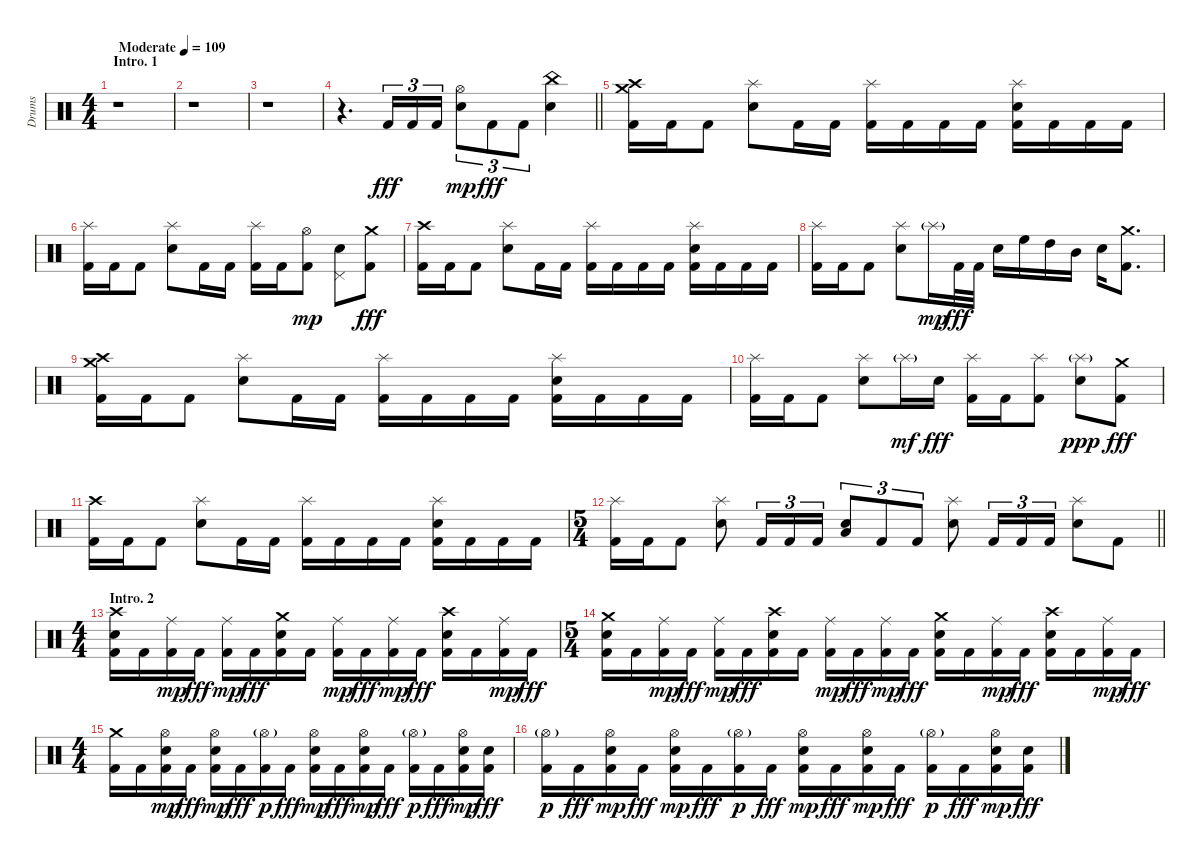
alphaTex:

\track ("Drums" "Drums") {instrument percussion}
\staff {score}
\articulation defaults
\ts (4 4)
\section ("" "Intro. 1")
\tempo (109 "Moderate")
\clef neutral
\ks c
r.1{dy fff} |
r.1 |
r.1 |
\barLineRight lightlight
r.4{d} "Kick (hit) 2".16{tu (3 2)} "Kick (hit) 2".16{tu (3 2)} "Kick (hit) 2".16{tu (3 2)} ("Electric Snare (hit)" "Hi-Hat (open)").8{tu (3 2) dy mp} "Kick (hit) 2".8{tu (3 2) dy fff} "Kick (hit) 2".8{tu (3 2)} ("Electric Snare (hit)" "China (hit)").4 |
("Kick (hit) 2" "Crash medium (hit)" "Crash high (hit)").16 "Kick (hit) 2".16 "Kick (hit) 2".8 ("Electric Snare (hit)" "Splash (hit)").8 "Kick (hit) 2".16 "Kick (hit) 2".16 ("Kick (hit) 2" "Splash (hit)").16 "Kick (hit) 2".16 "Kick (hit) 2".16 "Kick (hit) 2".16 ("Kick (hit) 2" "Electric Snare (hit)" "Splash (hit)").16 "Kick (hit) 2".16 "Kick (hit) 2".16 "Kick (hit) 2".16 |
("Kick (hit) 2" "Splash (hit)").16 "Kick (hit) 2".16 "Kick (hit) 2".8 ("Electric Snare (hit)" "Splash (hit)").8 "Kick (hit) 2".16 "Kick (hit) 2".16 ("Kick (hit) 2" "Splash (hit)").16 "Kick (hit) 2".16 ("Kick (hit) 2" "Hi-Hat (open)").8{dy mp} ("Electric Snare (hit)" "Pedal Hi-Hat (hit)").8 ("Kick (hit) 2" "Crash medium (hit)").8{dy fff} |
("Kick (hit) 2" "Crash high (hit)").16 "Kick (hit) 2".16 "Kick (hit) 2".8 ("Electric Snare (hit)" "Splash (hit)").8 "Kick (hit) 2".16 "Kick (hit) 2".16 ("Kick (hit) 2" "Splash (hit)").16 "Kick (hit) 2".16 "Kick (hit) 2".16 "Kick (hit) 2".16 ("Kick (hit) 2" "Electric Snare (hit)" "Splash (hit)").16 "Kick (hit) 2".16 "Kick (hit) 2".16 "Kick (hit) 2".16 |
("Kick (hit) 2" "Splash (hit)").16 "Kick (hit) 2".16 "Kick (hit) 2".8 ("Electric Snare (hit)" "Splash (hit)").8 "Splash (hit)"{g}.16{dy mp} "Kick (hit) 2".32{dy fff} "Kick (hit) 2".32 "Electric Snare (hit)".16 "High Floor Tom (hit)".16 "High Tom (hit)".16 "Mid Tom (hit)".16 "Electric Snare (hit)".16 ("Kick (hit) 2" "Crash medium (hit)").8{d} |
("Kick (hit) 2" "Crash medium (hit)" "Crash high (hit)").16 "Kick (hit) 2".16 "Kick (hit) 2".8 ("Electric Snare (hit)" "Splash (hit)").8 "Kick (hit) 2".16 "Kick (hit) 2".16 ("Kick (hit) 2" "Splash (hit)").16 "Kick (hit) 2".16 "Kick (hit) 2".16 "Kick (hit) 2".16 ("Kick (hit) 2" "Electric Snare (hit)" "Splash (hit)").16 "Kick (hit) 2".16 "Kick (hit) 2".16 "Kick (hit) 2".16 |
("Kick (hit) 2" "Splash (hit)").16 "Kick (hit) 2".16 "Kick (hit) 2".8 ("Electric Snare (hit)" "Splash (hit)").8 "Splash (hit)"{g}.16{dy mf} "Electric Snare (hit)".16{dy fff} ("Kick (hit) 2" "Splash (hit)").16 "Kick (hit) 2".16 ("Kick (hit) 2" "Splash (hit)").8 ("Electric Snare (hit)" "Splash (hit)"{g}).8{dy ppp} ("Kick (hit) 2" "Crash medium (hit)").8{dy fff} |
("Kick (hit) 2" "Crash high (hit)").16 "Kick (hit) 2".16 "Kick (hit) 2".8 ("Electric Snare (hit)" "Splash (hit)").8 "Kick (hit) 2".16 "Kick (hit) 2".16 ("Kick (hit) 2" "Splash (hit)").16 "Kick (hit) 2".16 "Kick (hit) 2".16 "Kick (hit) 2".16 ("Kick (hit) 2" "Electric Snare (hit)" "Splash (hit)").16 "Kick (hit) 2".16 "Kick (hit) 2".16 "Kick (hit) 2".16 |
\ts (5 4)
\barLineRight lightlight
("Kick (hit) 2" "Splash (hit)").16 "Kick (hit) 2".16 "Kick (hit) 2".8 ("Electric Snare (hit)" "Splash (hit)").8 "Kick (hit) 2".16{tu (3 2)} "Kick (hit) 2".16{tu (3 2)} "Kick (hit) 2".16{tu (3 2)} ("Electric Snare (hit)" "Low Floor Tom (hit)").8{tu (3 2)} "Kick (hit) 2".8{tu (3 2)} "Kick (hit) 2".8{tu (3 2)} ("Electric Snare (hit)" "Splash (hit)").8 "Kick (hit) 2".16{tu (3 2)} "Kick (hit) 2".16{tu (3 2)} "Kick (hit) 2".16{tu (3 2)} ("Electric Snare (hit)" "Splash (hit)").8 "Kick (hit) 2".8 |
\ts (4 4)
\section ("" "Intro. 2")
("Kick (hit) 2" "Electric Snare (hit)" "Crash high (hit)").16 "Kick (hit) 2".16 ("Kick (hit) 2" "Ride (middle)").16{dy mp} "Kick (hit) 2".16{dy fff} ("Kick (hit) 2" "Ride (middle)").16{dy mp} "Kick (hit) 2".16{dy fff} ("Kick (hit) 2" "Electric Snare (hit)" "Crash medium (hit)").16 "Kick (hit) 2".16 ("Kick (hit) 2" "Ride (middle)").16{dy mp} "Kick (hit) 2".16{dy fff} ("Kick (hit) 2" "Ride (middle)").16{dy mp} "Kick (hit) 2".16{dy fff} ("Kick (hit) 2" "Electric Snare (hit)" "Crash high (hit)").16 "Kick (hit) 2".16 ("Kick (hit) 2" "Ride (middle)").16{dy mp} "Kick (hit) 2".16{dy fff} |
\ts (5 4)
("Kick (hit) 2" "Electric Snare (hit)" "Crash medium (hit)").16 "Kick (hit) 2".16 ("Kick (hit) 2" "Ride (middle)").16{dy mp} "Kick (hit) 2".16{dy fff} ("Kick (hit) 2" "Ride (middle)").16{dy mp} "Kick (hit) 2".16{dy fff} ("Kick (hit) 2" "Electric Snare (hit)" "Crash high (hit)").16 "Kick (hit) 2".16 ("Kick (hit) 2" "Ride (middle)").16{dy mp} "Kick (hit) 2".16{dy fff} ("Kick (hit) 2" "Ride (middle)").16{dy mp} "Kick (hit) 2".16{dy fff} ("Kick (hit) 2" "Electric Snare (hit)" "Crash medium (hit)").16 "Kick (hit) 2".16 ("Kick (hit) 2" "Ride (middle)").16{dy mp} "Kick (hit) 2".16{dy fff} ("Kick (hit) 2" "Electric Snare (hit)" "Crash high (hit)").16 "Kick (hit) 2".16 ("Kick (hit) 2" "Ride (middle)").16{dy mp} "Kick (hit) 2".16{dy fff} |
\ts (4 4)
("Kick (hit) 2" "Crash medium (hit)").16 "Kick (hit) 2".16 ("Kick (hit) 2" "Electric Snare (hit)" "Hi-Hat (open)").16{dy mp} "Kick (hit) 2".16{dy fff} ("Kick (hit) 2" "Electric Snare (hit)" "Hi-Hat (open)").16{dy mp} "Kick (hit) 2".16{dy fff} ("Kick (hit) 2" "Hi-Hat (open)"{g}).16{dy p} "Kick (hit) 2".16{dy fff} ("Kick (hit) 2" "Electric Snare (hit)" "Hi-Hat (open)").16{dy mp} "Kick (hit) 2".16{dy fff} ("Kick (hit) 2" "Electric Snare (hit)" "Hi-Hat (open)").16{dy mp} "Kick (hit) 2".16{dy fff} ("Kick (hit) 2" "Hi-Hat (open)"{g}).16{dy p} "Kick (hit) 2".16{dy fff} ("Kick (hit) 2" "Electric Snare (hit)" "Hi-Hat (open)").16{dy mp} ("Kick (hit) 2" "Electric Snare (hit)").16{dy fff} |
("Kick (hit) 2" "Hi-Hat (open)"{g}).16{dy p} "Kick (hit) 2".16{dy fff} ("Kick (hit) 2" "Electric Snare (hit)" "Hi-Hat (open)").16{dy mp} "Kick (hit) 2".16{dy fff} ("Kick (hit) 2" "Electric Snare (hit)" "Hi-Hat (open)").16{dy mp} "Kick (hit) 2".16{dy fff} ("Kick (hit) 2" "Hi-Hat (open)"{g}).16{dy p} "Kick (hit) 2".16{dy fff} ("Kick (hit) 2" "Electric Snare (hit)" "Hi-Hat (open)").16{dy mp} "Kick (hit) 2".16{dy fff} ("Kick (hit) 2" "Electric Snare (hit)" "Hi-Hat (open)").16{dy mp} "Kick (hit) 2".16{dy fff} ("Kick (hit) 2" "Hi-Hat (open)"{g}).16{dy p} "Kick (hit) 2".16{dy fff} ("Kick (hit) 2" "Electric Snare (hit)" "Hi-Hat (open)").16{dy mp} ("Kick (hit) 2" "Electric Snare (hit)").16{dy fff}
